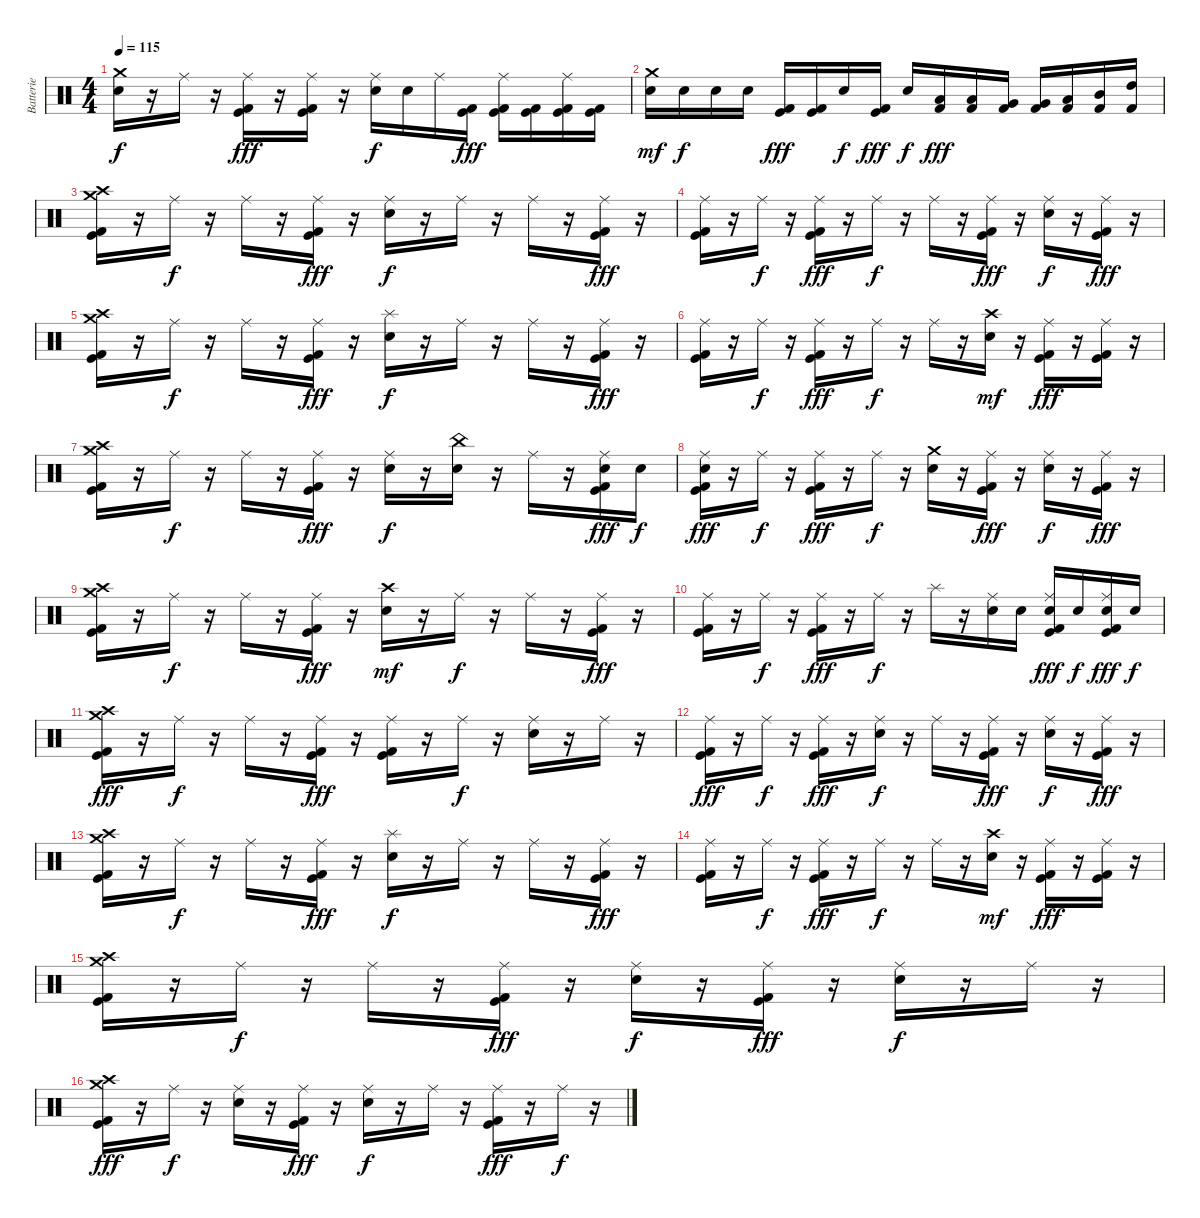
\track ("Batterie" "Batterie") {instrument percussion}
\staff {score}
\articulation defaults
\ts (4 4)
\tempo 115
\clef neutral
\ks c
("Crash medium (hit)" "Electric Snare (hit)").16{dy f} r.16 "Ride (middle)".16 r.16 ("Ride (middle)" "Kick (hit)" "Kick (hit) 2").16{dy fff} r.16 ("Ride (middle)" "Kick (hit)" "Kick (hit) 2").16 r.16 ("Ride (middle)" "Electric Snare (hit)").16{dy f} "Electric Snare (hit)".16 "Ride (middle)".16 ("Kick (hit)" "Kick (hit) 2").16{dy fff} ("Ride (middle)" "Kick (hit)" "Kick (hit) 2").16 ("Kick (hit)" "Kick (hit) 2").16 ("Ride (middle)" "Kick (hit)" "Kick (hit) 2").16 ("Kick (hit)" "Kick (hit) 2").16 |
("Crash medium (hit)" "Electric Snare (hit)").16{dy mf} "Electric Snare (hit)".16{dy f} "Electric Snare (hit)".16 "Electric Snare (hit)".16 ("Kick (hit)" "Kick (hit) 2").16{dy fff} ("Kick (hit)" "Kick (hit) 2").16 "Electric Snare (hit)".16{dy f} ("Kick (hit)" "Kick (hit) 2").16{dy fff} "Electric Snare (hit)".16{dy f} ("Low Floor Tom (hit)" "Kick (hit) 2").16{dy fff} ("Low Floor Tom (hit)" "Kick (hit) 2").16 ("Very Low Tom (hit)" "Kick (hit) 2").16 ("Very Low Tom (hit)" "Kick (hit) 2").16 ("Low Tom (hit)" "Kick (hit) 2").16 ("Mid Tom (hit)" "Kick (hit) 2").16 ("High Tom (hit)" "Kick (hit) 2").16 |
("Crash medium (hit)" "Crash high (hit)" "Kick (hit) 2" "Kick (hit)").16 r.16 "Ride (middle)".16{dy f} r.16 "Ride (middle)".16 r.16 ("Ride (middle)" "Kick (hit) 2" "Kick (hit)").16{dy fff} r.16 ("Ride (middle)" "Electric Snare (hit)").16{dy f} r.16 "Ride (middle)".16 r.16 "Ride (middle)".16 r.16 ("Ride (middle)" "Kick (hit)" "Kick (hit) 2").16{dy fff} r.16 |
("Ride (middle)" "Kick (hit)" "Kick (hit) 2").16 r.16 "Ride (middle)".16{dy f} r.16 ("Ride (middle)" "Kick (hit)" "Kick (hit) 2").16{dy fff} r.16 "Ride (middle)".16{dy f} r.16 "Ride (middle)".16 r.16 ("Ride (middle)" "Kick (hit)" "Kick (hit) 2").16{dy fff} r.16 ("Ride (middle)" "Electric Snare (hit)").16{dy f} r.16 ("Ride (middle)" "Kick (hit)" "Kick (hit) 2").16{dy fff} r.16 |
("Crash medium (hit)" "Crash high (hit)" "Kick (hit) 2" "Kick (hit)").16 r.16 "Ride (middle)".16{dy f} r.16 "Ride (middle)".16 r.16 ("Ride (middle)" "Kick (hit) 2" "Kick (hit)").16{dy fff} r.16 ("Splash (hit)" "Electric Snare (hit)").16{dy f} r.16 "Ride (middle)".16 r.16 "Ride (middle)".16 r.16 ("Ride (middle)" "Kick (hit)" "Kick (hit) 2").16{dy fff} r.16 |
("Ride (middle)" "Kick (hit)" "Kick (hit) 2").16 r.16 "Ride (middle)".16{dy f} r.16 ("Ride (middle)" "Kick (hit)" "Kick (hit) 2").16{dy fff} r.16 "Ride (middle)".16{dy f} r.16 "Ride (middle)".16 r.16 ("Crash high (hit)" "Electric Snare (hit)").16{dy mf} r.16 ("Ride (middle)" "Kick (hit)" "Kick (hit) 2").16{dy fff} r.16 ("Ride (middle)" "Kick (hit)" "Kick (hit) 2").16 r.16 |
("Crash medium (hit)" "Crash high (hit)" "Kick (hit) 2" "Kick (hit)").16 r.16 "Ride (middle)".16{dy f} r.16 "Ride (middle)".16 r.16 ("Ride (middle)" "Kick (hit) 2" "Kick (hit)").16{dy fff} r.16 ("Ride (middle)" "Electric Snare (hit)").16{dy f} r.16 ("China (hit)" "Electric Snare (hit)").16 r.16 "Ride (middle)".16 r.16 ("Ride (middle)" "Electric Snare (hit)" "Kick (hit)" "Kick (hit) 2").16{dy fff} "Electric Snare (hit)".16{dy f} |
("Ride (middle)" "Electric Snare (hit)" "Kick (hit)" "Kick (hit) 2").16{dy fff} r.16 "Ride (middle)".16{dy f} r.16 ("Ride (middle)" "Kick (hit)" "Kick (hit) 2").16{dy fff} r.16 "Ride (middle)".16{dy f} r.16 ("Crash medium (hit)" "Electric Snare (hit)").16 r.16 ("Ride (middle)" "Kick (hit)" "Kick (hit) 2").16{dy fff} r.16 ("Ride (middle)" "Electric Snare (hit)").16{dy f} r.16 ("Ride (middle)" "Kick (hit)" "Kick (hit) 2").16{dy fff} r.16 |
("Crash medium (hit)" "Crash high (hit)" "Kick (hit) 2" "Kick (hit)").16 r.16 "Ride (middle)".16{dy f} r.16 "Ride (middle)".16 r.16 ("Ride (middle)" "Kick (hit) 2" "Kick (hit)").16{dy fff} r.16 ("Crash high (hit)" "Electric Snare (hit)").16{dy mf} r.16 "Ride (middle)".16{dy f} r.16 "Ride (middle)".16 r.16 ("Ride (middle)" "Kick (hit)" "Kick (hit) 2").16{dy fff} r.16 |
("Ride (middle)" "Kick (hit)" "Kick (hit) 2").16 r.16 "Ride (middle)".16{dy f} r.16 ("Ride (middle)" "Kick (hit)" "Kick (hit) 2").16{dy fff} r.16 "Ride (middle)".16{dy f} r.16 "Splash (hit)".16 r.16 ("Ride (middle)" "Electric Snare (hit)").16 "Electric Snare (hit)".16 ("Ride (middle)" "Electric Snare (hit)" "Kick (hit)" "Kick (hit) 2").16{dy fff} "Electric Snare (hit)".16{dy f} ("Ride (middle)" "Electric Snare (hit)" "Kick (hit)" "Kick (hit) 2").16{dy fff} "Electric Snare (hit)".16{dy f} |
("Crash medium (hit)" "Crash high (hit)" "Kick (hit)" "Kick (hit) 2").16{dy fff} r.16 "Ride (middle)".16{dy f} r.16 "Ride (middle)".16 r.16 ("Ride (middle)" "Kick (hit)" "Kick (hit) 2").16{dy fff} r.16 ("Ride (middle)" "Kick (hit)" "Kick (hit) 2").16 r.16 "Ride (middle)".16{dy f} r.16 ("Ride (middle)" "Electric Snare (hit)").16 r.16 "Ride (middle)".16 r.16 |
("Ride (middle)" "Kick (hit)" "Kick (hit) 2").16{dy fff} r.16 "Ride (middle)".16{dy f} r.16 ("Ride (middle)" "Kick (hit)" "Kick (hit) 2").16{dy fff} r.16 ("Ride (middle)" "Electric Snare (hit)").16{dy f} r.16 "Ride (middle)".16 r.16 ("Ride (middle)" "Kick (hit)" "Kick (hit) 2").16{dy fff} r.16 ("Ride (middle)" "Electric Snare (hit)").16{dy f} r.16 ("Ride (middle)" "Kick (hit)" "Kick (hit) 2").16{dy fff} r.16 |
("Crash medium (hit)" "Crash high (hit)" "Kick (hit) 2" "Kick (hit)").16 r.16 "Ride (middle)".16{dy f} r.16 "Ride (middle)".16 r.16 ("Ride (middle)" "Kick (hit) 2" "Kick (hit)").16{dy fff} r.16 ("Splash (hit)" "Electric Snare (hit)").16{dy f} r.16 "Ride (middle)".16 r.16 "Ride (middle)".16 r.16 ("Ride (middle)" "Kick (hit)" "Kick (hit) 2").16{dy fff} r.16 |
("Ride (middle)" "Kick (hit)" "Kick (hit) 2").16 r.16 "Ride (middle)".16{dy f} r.16 ("Ride (middle)" "Kick (hit)" "Kick (hit) 2").16{dy fff} r.16 "Ride (middle)".16{dy f} r.16 "Ride (middle)".16 r.16 ("Crash high (hit)" "Electric Snare (hit)").16{dy mf} r.16 ("Ride (middle)" "Kick (hit)" "Kick (hit) 2").16{dy fff} r.16 ("Ride (middle)" "Kick (hit)" "Kick (hit) 2").16 r.16 |
("Crash high (hit)" "Crash medium (hit)" "Kick (hit)" "Kick (hit) 2").16 r.16 "Ride (middle)".16{dy f} r.16 "Ride (middle)".16 r.16 ("Ride (middle)" "Kick (hit)" "Kick (hit) 2").16{dy fff} r.16 ("Ride (middle)" "Electric Snare (hit)").16{dy f} r.16 ("Ride (middle)" "Kick (hit)" "Kick (hit) 2").16{dy fff} r.16 ("Ride (middle)" "Electric Snare (hit)").16{dy f} r.16 "Ride (middle)".16 r.16 |
("Crash high (hit)" "Crash medium (hit)" "Kick (hit)" "Kick (hit) 2").16{dy fff} r.16 "Ride (middle)".16{dy f} r.16 ("Ride (middle)" "Electric Snare (hit)").16 r.16 ("Ride (middle)" "Kick (hit)" "Kick (hit) 2").16{dy fff} r.16 ("Ride (middle)" "Electric Snare (hit)").16{dy f} r.16 "Ride (middle)".16 r.16 ("Ride (middle)" "Kick (hit)" "Kick (hit) 2").16{dy fff} r.16 "Ride (middle)".16{dy f} r.16
